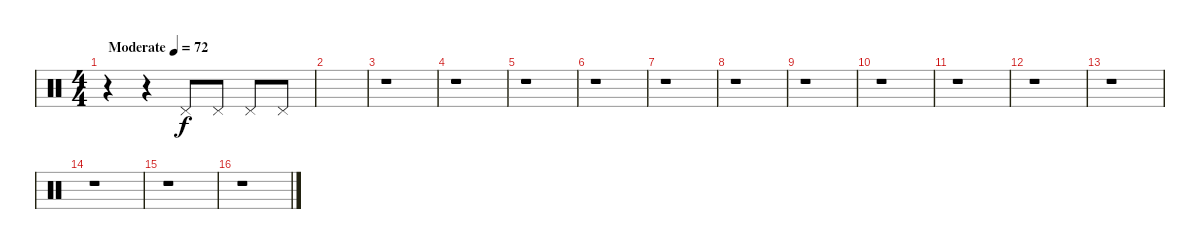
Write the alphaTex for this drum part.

\track "" {instrument percussion}
\staff {score}
\articulation defaults
\ts (4 4)
\tempo (72 "Moderate")
\clef neutral
\ks c
r.4{dy f} r.4 "Pedal Hi-Hat (hit)".8 "Pedal Hi-Hat (hit)".8 "Pedal Hi-Hat (hit)".8 "Pedal Hi-Hat (hit)".8 |
|
r.1 |
r.1 |
r.1 |
r.1 |
r.1 |
r.1 |
r.1 |
r.1 |
r.1 |
r.1 |
r.1 |
r.1 |
r.1 |
r.1
